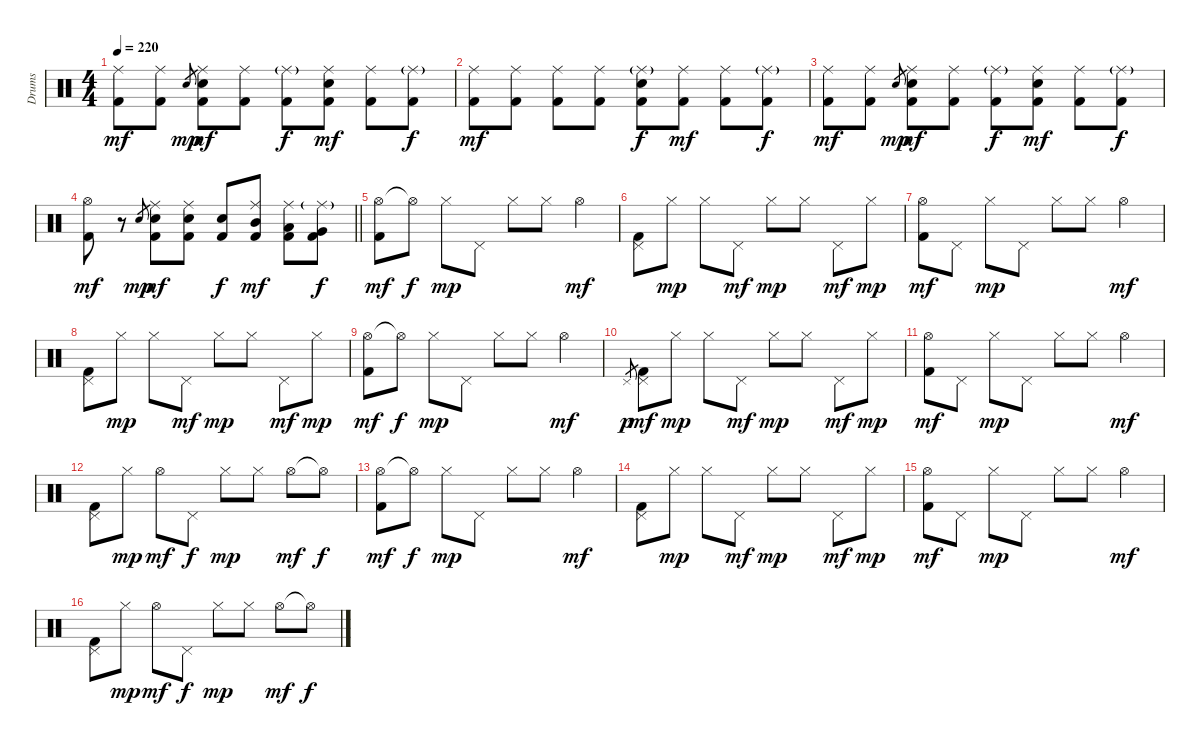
\bracketExtendMode groupsimilarinstruments
\otherSystemsTrackNameOrientation horizontal
\track ("Drumkit" "Drums") {instrument percussion}
\staff {score}
\articulation defaults
\ts (4 4)
\tempo 220
\clef neutral
\ks c
("Ride (middle)" "Kick (hit) 2").8{dy mf beam Down} ("Ride (middle)" "Kick (hit) 2").8{beam Down} "Snare (hit) 2".8{gr dy mp beam Up} ("Ride (middle)" "Snare (hit) 2" "Kick (hit) 2").8{dy mf beam Down} ("Ride (middle)" "Kick (hit) 2").8{beam Down} ("Ride (middle)"{g} "Kick (hit) 2").8{dy f beam Down} ("Ride (middle)" "Snare (hit) 2" "Kick (hit) 2").8{dy mf beam Down} ("Ride (middle)" "Kick (hit) 2").8{beam Down} ("Ride (middle)"{g} "Kick (hit) 2").8{dy f beam Down} |
("Ride (middle)" "Kick (hit) 2").8{dy mf beam Down} ("Ride (middle)" "Kick (hit) 2").8{beam Down} ("Ride (middle)" "Kick (hit) 2").8{beam Down} ("Ride (middle)" "Kick (hit) 2").8{beam Down} ("Ride (middle)"{g} "Snare (hit) 2" "Kick (hit) 2").8{dy f beam Down} ("Ride (middle)" "Kick (hit) 2").8{dy mf beam Down} ("Ride (middle)" "Kick (hit) 2").8{beam Down} ("Ride (middle)"{g} "Kick (hit) 2").8{dy f beam Down} |
("Ride (middle)" "Kick (hit) 2").8{dy mf beam Down} ("Ride (middle)" "Kick (hit) 2").8{beam Down} "Snare (hit) 2".8{gr dy mp beam Up} ("Ride (middle)" "Snare (hit) 2" "Kick (hit) 2").8{dy mf beam Down} ("Ride (middle)" "Kick (hit) 2").8{beam Down} ("Ride (middle)"{g} "Kick (hit) 2").8{dy f beam Down} ("Ride (middle)" "Snare (hit) 2" "Kick (hit) 2").8{dy mf beam Down} ("Ride (middle)" "Kick (hit) 2").8{beam Down} ("Ride (middle)"{g} "Kick (hit) 2").8{dy f beam Down} |
\barLineRight lightlight
("Hi-Hat (open)" "Kick (hit) 2").8{dy mf beam Down} r.8{beam Down} "Snare (hit) 2".8{gr dy mp beam Up} ("Ride (middle)" "Snare (hit) 2" "Kick (hit) 2").8{dy mf beam Down} ("Ride (middle)" "Snare (hit) 2" "Kick (hit) 2").8{beam Down} ("Snare (hit) 2" "Kick (hit) 2").8{dy f beam Up} ("Ride (middle)" "Mid Tom (hit)" "Kick (hit) 2").8{dy mf beam Up} ("Ride (middle)" "Low Tom (hit)" "Kick (hit) 2").8{beam Down} ("Ride (middle)"{g} "Very Low Tom (hit)" "Kick (hit) 2").8{dy f beam Down} |
("Hi-Hat (open)" "Kick (hit) 2").8{dy mf beam Down} "Hi-Hat (open)"{t}.8{dy f beam Down} "Hi-Hat (closed)".8{dy mp beam Down} "Pedal Hi-Hat (hit)".8{beam Down} "Hi-Hat (closed)".8{beam Down} "Hi-Hat (closed)".8{beam Down} "Hi-Hat (open)".4{dy mf beam Down} |
("Pedal Hi-Hat (hit)" "Kick (hit) 2").8{beam Down} "Hi-Hat (closed)".8{dy mp beam Down} "Hi-Hat (closed)".8{beam Down} "Pedal Hi-Hat (hit)".8{dy mf beam Down} "Hi-Hat (closed)".8{dy mp beam Down} "Hi-Hat (closed)".8{beam Down} "Pedal Hi-Hat (hit)".8{dy mf beam Down} "Hi-Hat (closed)".8{dy mp beam Down} |
("Hi-Hat (open)" "Kick (hit) 2").8{dy mf beam Down} "Pedal Hi-Hat (hit)".8{beam Down} "Hi-Hat (closed)".8{dy mp beam Down} "Pedal Hi-Hat (hit)".8{beam Down} "Hi-Hat (closed)".8{beam Down} "Hi-Hat (closed)".8{beam Down} "Hi-Hat (open)".4{dy mf beam Down} |
("Pedal Hi-Hat (hit)" "Kick (hit) 2").8{beam Down} "Hi-Hat (closed)".8{dy mp beam Down} "Hi-Hat (closed)".8{beam Down} "Pedal Hi-Hat (hit)".8{dy mf beam Down} "Hi-Hat (closed)".8{dy mp beam Down} "Hi-Hat (closed)".8{beam Down} "Pedal Hi-Hat (hit)".8{dy mf beam Down} "Hi-Hat (closed)".8{dy mp beam Down} |
("Hi-Hat (open)" "Kick (hit) 2").8{dy mf beam Down} "Hi-Hat (open)"{t}.8{dy f beam Down} "Hi-Hat (closed)".8{dy mp beam Down} "Pedal Hi-Hat (hit)".8{beam Down} "Hi-Hat (closed)".8{beam Down} "Hi-Hat (closed)".8{beam Down} "Hi-Hat (open)".4{dy mf beam Down} |
"Pedal Hi-Hat (hit)".8{gr dy p beam Up} ("Pedal Hi-Hat (hit)" "Kick (hit) 2").8{dy mf beam Down} "Hi-Hat (closed)".8{dy mp beam Down} "Hi-Hat (closed)".8{beam Down} "Pedal Hi-Hat (hit)".8{dy mf beam Down} "Hi-Hat (closed)".8{dy mp beam Down} "Hi-Hat (closed)".8{beam Down} "Pedal Hi-Hat (hit)".8{dy mf beam Down} "Hi-Hat (closed)".8{dy mp beam Down} |
("Hi-Hat (open)" "Kick (hit) 2").8{dy mf beam Down} "Pedal Hi-Hat (hit)".8{beam Down} "Hi-Hat (closed)".8{dy mp beam Down} "Pedal Hi-Hat (hit)".8{beam Down} "Hi-Hat (closed)".8{beam Down} "Hi-Hat (closed)".8{beam Down} "Hi-Hat (open)".4{dy mf beam Down} |
("Pedal Hi-Hat (hit)" "Kick (hit) 2").8{beam Down} "Hi-Hat (closed)".8{dy mp beam Down} "Hi-Hat (open)".8{dy mf beam Down} "Pedal Hi-Hat (hit)".8{dy f beam Down} "Hi-Hat (closed)".8{dy mp beam Down} "Hi-Hat (closed)".8{beam Down} "Hi-Hat (open)".8{dy mf beam Down} "Hi-Hat (open)"{t}.8{dy f beam Down} |
("Hi-Hat (open)" "Kick (hit) 2").8{dy mf beam Down} "Hi-Hat (open)"{t}.8{dy f beam Down} "Hi-Hat (closed)".8{dy mp beam Down} "Pedal Hi-Hat (hit)".8{beam Down} "Hi-Hat (closed)".8{beam Down} "Hi-Hat (closed)".8{beam Down} "Hi-Hat (open)".4{dy mf beam Down} |
("Pedal Hi-Hat (hit)" "Kick (hit) 2").8{beam Down} "Hi-Hat (closed)".8{dy mp beam Down} "Hi-Hat (closed)".8{beam Down} "Pedal Hi-Hat (hit)".8{dy mf beam Down} "Hi-Hat (closed)".8{dy mp beam Down} "Hi-Hat (closed)".8{beam Down} "Pedal Hi-Hat (hit)".8{dy mf beam Down} "Hi-Hat (closed)".8{dy mp beam Down} |
("Hi-Hat (open)" "Kick (hit) 2").8{dy mf beam Down} "Pedal Hi-Hat (hit)".8{beam Down} "Hi-Hat (closed)".8{dy mp beam Down} "Pedal Hi-Hat (hit)".8{beam Down} "Hi-Hat (closed)".8{beam Down} "Hi-Hat (closed)".8{beam Down} "Hi-Hat (open)".4{dy mf beam Down} |
("Pedal Hi-Hat (hit)" "Kick (hit) 2").8{beam Down} "Hi-Hat (closed)".8{dy mp beam Down} "Hi-Hat (open)".8{dy mf beam Down} "Pedal Hi-Hat (hit)".8{dy f beam Down} "Hi-Hat (closed)".8{dy mp beam Down} "Hi-Hat (closed)".8{beam Down} "Hi-Hat (open)".8{dy mf beam Down} "Hi-Hat (open)"{t}.8{dy f beam Down}
